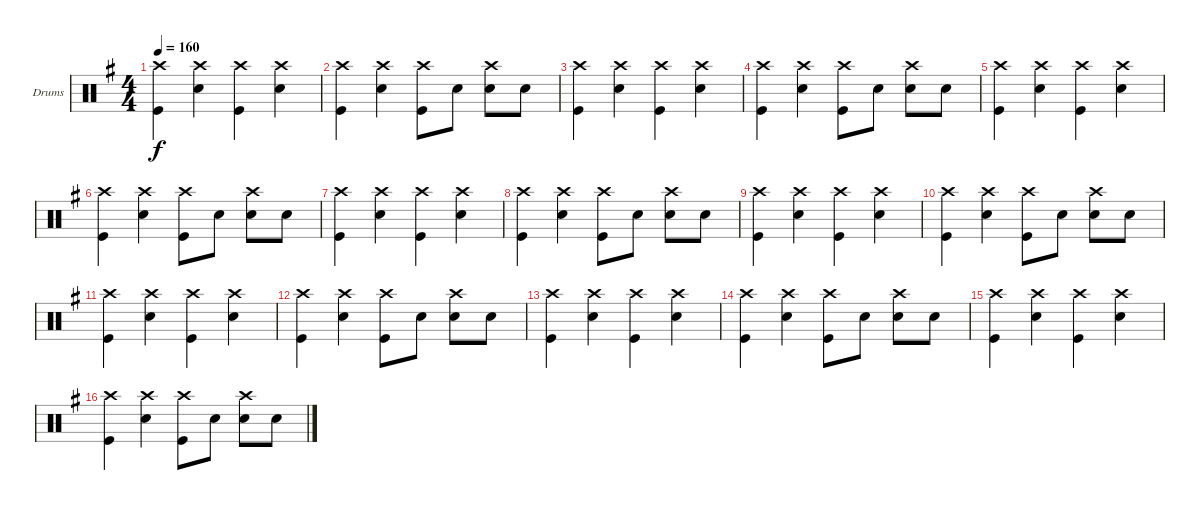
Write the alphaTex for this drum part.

\bracketExtendMode groupsimilarinstruments
\firstSystemTrackNameOrientation horizontal
\otherSystemsTrackNameOrientation horizontal
\track ("Drumkit" "Drums") {instrument percussion}
\staff {score}
\articulation defaults
\ts (4 4)
\tempo 160
\clef neutral
\ks eminor
("Crash high (hit)" "Kick (hit)").4{dy f} ("Crash high (hit)" "Snare (hit) 2").4 ("Crash high (hit)" "Kick (hit)").4 ("Crash high (hit)" "Snare (hit) 2").4 |
("Crash high (hit)" "Kick (hit)").4 ("Crash high (hit)" "Snare (hit) 2").4 ("Crash high (hit)" "Kick (hit)").8 "Snare (hit) 2".8 ("Crash high (hit)" "Snare (hit) 2").8 "Snare (hit) 2".8 |
("Crash high (hit)" "Kick (hit)").4 ("Crash high (hit)" "Snare (hit) 2").4 ("Crash high (hit)" "Kick (hit)").4 ("Crash high (hit)" "Snare (hit) 2").4 |
("Crash high (hit)" "Kick (hit)").4 ("Crash high (hit)" "Snare (hit) 2").4 ("Crash high (hit)" "Kick (hit)").8 "Snare (hit) 2".8 ("Crash high (hit)" "Snare (hit) 2").8 "Snare (hit) 2".8 |
("Crash high (hit)" "Kick (hit)").4 ("Crash high (hit)" "Snare (hit) 2").4 ("Crash high (hit)" "Kick (hit)").4 ("Crash high (hit)" "Snare (hit) 2").4 |
("Crash high (hit)" "Kick (hit)").4 ("Crash high (hit)" "Snare (hit) 2").4 ("Crash high (hit)" "Kick (hit)").8 "Snare (hit) 2".8 ("Crash high (hit)" "Snare (hit) 2").8 "Snare (hit) 2".8 |
("Crash high (hit)" "Kick (hit)").4 ("Crash high (hit)" "Snare (hit) 2").4 ("Crash high (hit)" "Kick (hit)").4 ("Crash high (hit)" "Snare (hit) 2").4 |
("Crash high (hit)" "Kick (hit)").4 ("Crash high (hit)" "Snare (hit) 2").4 ("Crash high (hit)" "Kick (hit)").8 "Snare (hit) 2".8 ("Crash high (hit)" "Snare (hit) 2").8 "Snare (hit) 2".8 |
("Crash high (hit)" "Kick (hit)").4 ("Crash high (hit)" "Snare (hit) 2").4 ("Crash high (hit)" "Kick (hit)").4 ("Crash high (hit)" "Snare (hit) 2").4 |
("Crash high (hit)" "Kick (hit)").4 ("Crash high (hit)" "Snare (hit) 2").4 ("Crash high (hit)" "Kick (hit)").8 "Snare (hit) 2".8 ("Crash high (hit)" "Snare (hit) 2").8 "Snare (hit) 2".8 |
("Crash high (hit)" "Kick (hit)").4 ("Crash high (hit)" "Snare (hit) 2").4 ("Crash high (hit)" "Kick (hit)").4 ("Crash high (hit)" "Snare (hit) 2").4 |
("Crash high (hit)" "Kick (hit)").4 ("Crash high (hit)" "Snare (hit) 2").4 ("Crash high (hit)" "Kick (hit)").8 "Snare (hit) 2".8 ("Crash high (hit)" "Snare (hit) 2").8 "Snare (hit) 2".8 |
("Crash high (hit)" "Kick (hit)").4 ("Crash high (hit)" "Snare (hit) 2").4 ("Crash high (hit)" "Kick (hit)").4 ("Crash high (hit)" "Snare (hit) 2").4 |
("Crash high (hit)" "Kick (hit)").4 ("Crash high (hit)" "Snare (hit) 2").4 ("Crash high (hit)" "Kick (hit)").8 "Snare (hit) 2".8 ("Crash high (hit)" "Snare (hit) 2").8 "Snare (hit) 2".8 |
("Crash high (hit)" "Kick (hit)").4 ("Crash high (hit)" "Snare (hit) 2").4 ("Crash high (hit)" "Kick (hit)").4 ("Crash high (hit)" "Snare (hit) 2").4 |
("Crash high (hit)" "Kick (hit)").4 ("Crash high (hit)" "Snare (hit) 2").4 ("Crash high (hit)" "Kick (hit)").8 "Snare (hit) 2".8 ("Crash high (hit)" "Snare (hit) 2").8 "Snare (hit) 2".8
